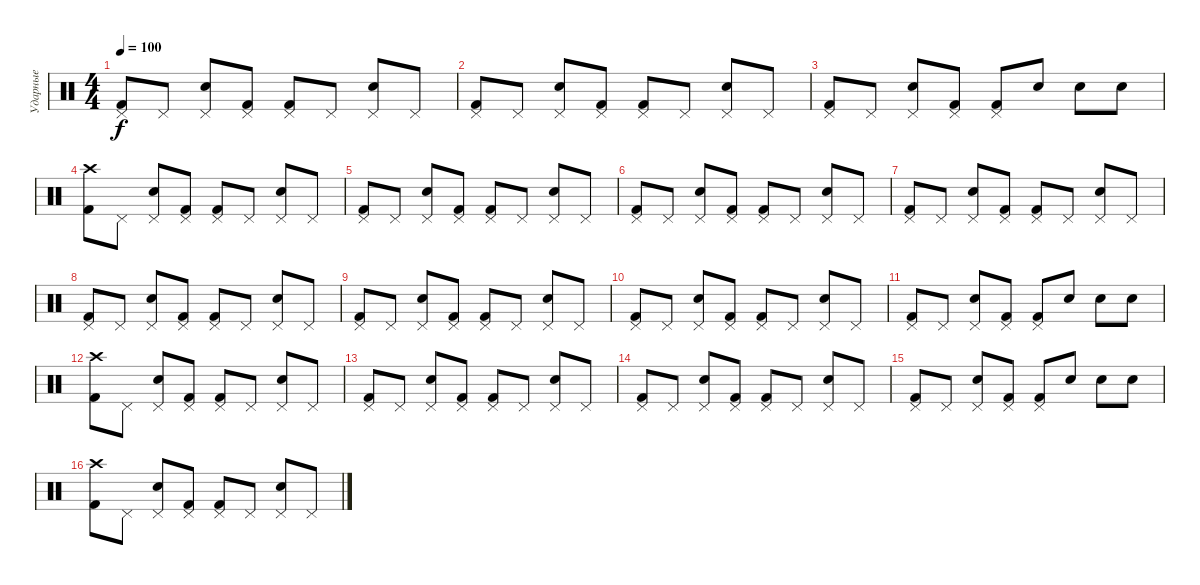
\track ("Ударные" "Ударные") {instrument percussion}
\staff {score}
\articulation defaults
\ts (4 4)
\tempo 100
\clef neutral
\ks c
("Pedal Hi-Hat (hit)" "Kick (hit) 2").8{dy f} "Pedal Hi-Hat (hit)".8 ("Pedal Hi-Hat (hit)" "Snare (hit) 2").8 ("Pedal Hi-Hat (hit)" "Kick (hit) 2").8 ("Pedal Hi-Hat (hit)" "Kick (hit) 2").8 "Pedal Hi-Hat (hit)".8 ("Pedal Hi-Hat (hit)" "Snare (hit) 2").8 "Pedal Hi-Hat (hit)".8 |
("Pedal Hi-Hat (hit)" "Kick (hit) 2").8 "Pedal Hi-Hat (hit)".8 ("Pedal Hi-Hat (hit)" "Snare (hit) 2").8 ("Pedal Hi-Hat (hit)" "Kick (hit) 2").8 ("Pedal Hi-Hat (hit)" "Kick (hit) 2").8 "Pedal Hi-Hat (hit)".8 ("Pedal Hi-Hat (hit)" "Snare (hit) 2").8 "Pedal Hi-Hat (hit)".8 |
("Pedal Hi-Hat (hit)" "Kick (hit) 2").8 "Pedal Hi-Hat (hit)".8 ("Pedal Hi-Hat (hit)" "Snare (hit) 2").8 ("Pedal Hi-Hat (hit)" "Kick (hit) 2").8 ("Pedal Hi-Hat (hit)" "Kick (hit) 2").8 "Snare (hit) 2".8 "Snare (hit) 2".8 "Snare (hit) 2".8 |
("Crash high (hit)" "Kick (hit) 2").8 "Pedal Hi-Hat (hit)".8 ("Pedal Hi-Hat (hit)" "Snare (hit) 2").8 ("Pedal Hi-Hat (hit)" "Kick (hit) 2").8 ("Pedal Hi-Hat (hit)" "Kick (hit) 2").8 "Pedal Hi-Hat (hit)".8 ("Pedal Hi-Hat (hit)" "Snare (hit) 2").8 "Pedal Hi-Hat (hit)".8 |
("Pedal Hi-Hat (hit)" "Kick (hit) 2").8 "Pedal Hi-Hat (hit)".8 ("Pedal Hi-Hat (hit)" "Snare (hit) 2").8 ("Pedal Hi-Hat (hit)" "Kick (hit) 2").8 ("Pedal Hi-Hat (hit)" "Kick (hit) 2").8 "Pedal Hi-Hat (hit)".8 ("Pedal Hi-Hat (hit)" "Snare (hit) 2").8 "Pedal Hi-Hat (hit)".8 |
("Pedal Hi-Hat (hit)" "Kick (hit) 2").8 "Pedal Hi-Hat (hit)".8 ("Pedal Hi-Hat (hit)" "Snare (hit) 2").8 ("Pedal Hi-Hat (hit)" "Kick (hit) 2").8 ("Pedal Hi-Hat (hit)" "Kick (hit) 2").8 "Pedal Hi-Hat (hit)".8 ("Pedal Hi-Hat (hit)" "Snare (hit) 2").8 "Pedal Hi-Hat (hit)".8 |
("Pedal Hi-Hat (hit)" "Kick (hit) 2").8 "Pedal Hi-Hat (hit)".8 ("Pedal Hi-Hat (hit)" "Snare (hit) 2").8 ("Pedal Hi-Hat (hit)" "Kick (hit) 2").8 ("Pedal Hi-Hat (hit)" "Kick (hit) 2").8 "Pedal Hi-Hat (hit)".8 ("Pedal Hi-Hat (hit)" "Snare (hit) 2").8 "Pedal Hi-Hat (hit)".8 |
("Pedal Hi-Hat (hit)" "Kick (hit) 2").8 "Pedal Hi-Hat (hit)".8 ("Pedal Hi-Hat (hit)" "Snare (hit) 2").8 ("Pedal Hi-Hat (hit)" "Kick (hit) 2").8 ("Pedal Hi-Hat (hit)" "Kick (hit) 2").8 "Pedal Hi-Hat (hit)".8 ("Pedal Hi-Hat (hit)" "Snare (hit) 2").8 "Pedal Hi-Hat (hit)".8 |
("Pedal Hi-Hat (hit)" "Kick (hit) 2").8 "Pedal Hi-Hat (hit)".8 ("Pedal Hi-Hat (hit)" "Snare (hit) 2").8 ("Pedal Hi-Hat (hit)" "Kick (hit) 2").8 ("Pedal Hi-Hat (hit)" "Kick (hit) 2").8 "Pedal Hi-Hat (hit)".8 ("Pedal Hi-Hat (hit)" "Snare (hit) 2").8 "Pedal Hi-Hat (hit)".8 |
("Pedal Hi-Hat (hit)" "Kick (hit) 2").8 "Pedal Hi-Hat (hit)".8 ("Pedal Hi-Hat (hit)" "Snare (hit) 2").8 ("Pedal Hi-Hat (hit)" "Kick (hit) 2").8 ("Pedal Hi-Hat (hit)" "Kick (hit) 2").8 "Pedal Hi-Hat (hit)".8 ("Pedal Hi-Hat (hit)" "Snare (hit) 2").8 "Pedal Hi-Hat (hit)".8 |
("Pedal Hi-Hat (hit)" "Kick (hit) 2").8 "Pedal Hi-Hat (hit)".8 ("Pedal Hi-Hat (hit)" "Snare (hit) 2").8 ("Pedal Hi-Hat (hit)" "Kick (hit) 2").8 ("Pedal Hi-Hat (hit)" "Kick (hit) 2").8 "Snare (hit) 2".8 "Snare (hit) 2".8 "Snare (hit) 2".8 |
("Crash high (hit)" "Kick (hit) 2").8 "Pedal Hi-Hat (hit)".8 ("Pedal Hi-Hat (hit)" "Snare (hit) 2").8 ("Pedal Hi-Hat (hit)" "Kick (hit) 2").8 ("Pedal Hi-Hat (hit)" "Kick (hit) 2").8 "Pedal Hi-Hat (hit)".8 ("Pedal Hi-Hat (hit)" "Snare (hit) 2").8 "Pedal Hi-Hat (hit)".8 |
("Pedal Hi-Hat (hit)" "Kick (hit) 2").8 "Pedal Hi-Hat (hit)".8 ("Pedal Hi-Hat (hit)" "Snare (hit) 2").8 ("Pedal Hi-Hat (hit)" "Kick (hit) 2").8 ("Pedal Hi-Hat (hit)" "Kick (hit) 2").8 "Pedal Hi-Hat (hit)".8 ("Pedal Hi-Hat (hit)" "Snare (hit) 2").8 "Pedal Hi-Hat (hit)".8 |
("Pedal Hi-Hat (hit)" "Kick (hit) 2").8 "Pedal Hi-Hat (hit)".8 ("Pedal Hi-Hat (hit)" "Snare (hit) 2").8 ("Pedal Hi-Hat (hit)" "Kick (hit) 2").8 ("Pedal Hi-Hat (hit)" "Kick (hit) 2").8 "Pedal Hi-Hat (hit)".8 ("Pedal Hi-Hat (hit)" "Snare (hit) 2").8 "Pedal Hi-Hat (hit)".8 |
("Pedal Hi-Hat (hit)" "Kick (hit) 2").8 "Pedal Hi-Hat (hit)".8 ("Pedal Hi-Hat (hit)" "Snare (hit) 2").8 ("Pedal Hi-Hat (hit)" "Kick (hit) 2").8 ("Pedal Hi-Hat (hit)" "Kick (hit) 2").8 "Snare (hit) 2".8 "Snare (hit) 2".8 "Snare (hit) 2".8 |
("Crash high (hit)" "Kick (hit) 2").8 "Pedal Hi-Hat (hit)".8 ("Pedal Hi-Hat (hit)" "Snare (hit) 2").8 ("Pedal Hi-Hat (hit)" "Kick (hit) 2").8 ("Pedal Hi-Hat (hit)" "Kick (hit) 2").8 "Pedal Hi-Hat (hit)".8 ("Pedal Hi-Hat (hit)" "Snare (hit) 2").8 "Pedal Hi-Hat (hit)".8
